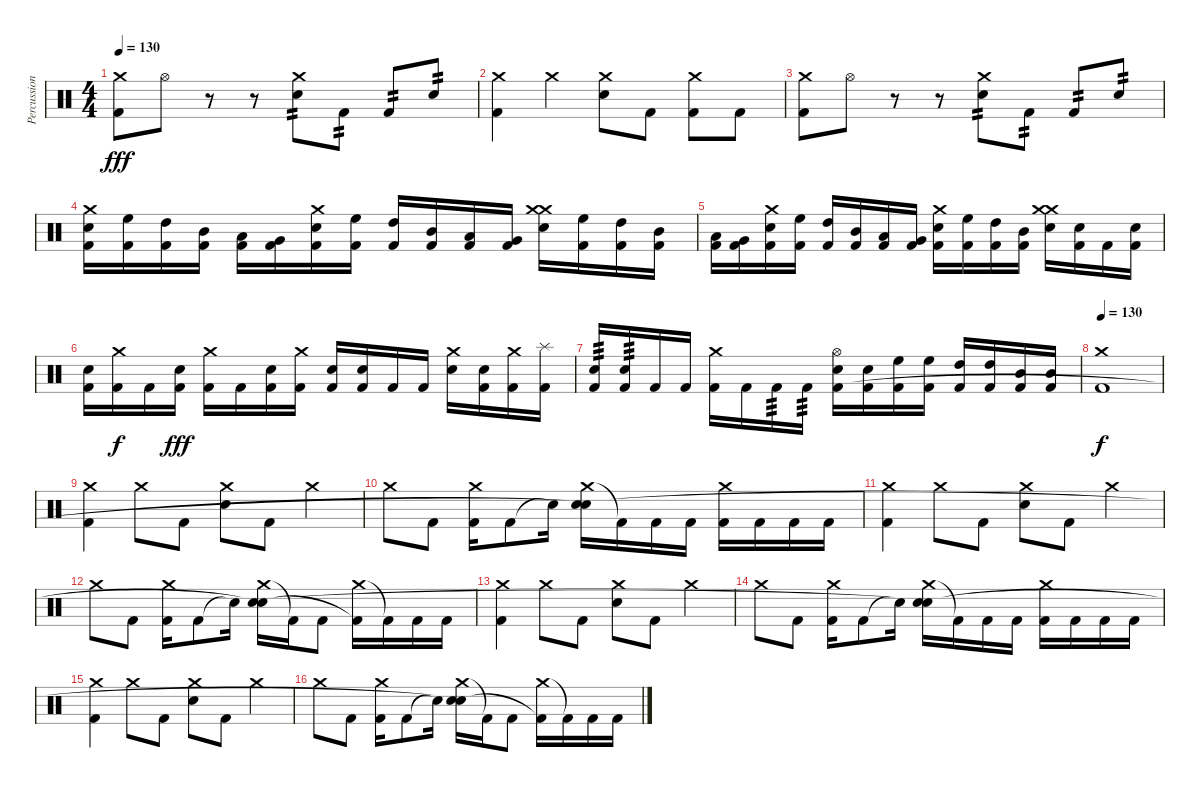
\track ("Percussion" "Percussion") {instrument percussion}
\staff {score}
\articulation defaults
\ts (4 4)
\tempo 130
\clef neutral
\ks c
("Crash medium (hit)" "Kick (hit) 2").8{dy fff} "Hi-Hat (open)".8 r.8 r.8 ("Crash medium (hit)" "Electric Snare (hit)").8{tp 2} "Kick (hit) 2".8{tp 2} "Kick (hit) 2".8{tp 2} "Electric Snare (hit)".8{tp 2} |
("Crash medium (hit)" "Kick (hit) 2").4 "Crash medium (hit)".4 ("Crash medium (hit)" "Electric Snare (hit)").8 "Kick (hit) 2".8 ("Crash medium (hit)" "Kick (hit) 2").8 "Kick (hit) 2".8 |
("Crash medium (hit)" "Kick (hit) 2").8 "Hi-Hat (open)".8 r.8 r.8 ("Crash medium (hit)" "Electric Snare (hit)").8{tp 2} "Kick (hit) 2".8{tp 2} "Kick (hit) 2".8{tp 2} "Electric Snare (hit)".8{tp 2} |
("Crash medium (hit)" "Electric Snare (hit)" "Kick (hit) 2").16 ("High Floor Tom (hit)" "Kick (hit) 2").16 ("High Tom (hit)" "Kick (hit) 2").16 ("Mid Tom (hit)" "Kick (hit) 2").16 ("Low Tom (hit)" "Kick (hit) 2").16 ("Very Low Tom (hit)" "Kick (hit) 2").16 ("Crash medium (hit)" "Electric Snare (hit)" "Kick (hit) 2").16 ("High Floor Tom (hit)" "Kick (hit) 2").16 ("High Tom (hit)" "Kick (hit) 2").16 ("Mid Tom (hit)" "Kick (hit) 2").16 ("Low Tom (hit)" "Kick (hit) 2").16 ("Very Low Tom (hit)" "Kick (hit) 2").16 ("Crash medium (hit)" "Electric Snare (hit)" "Crash medium (hit)").16 ("High Floor Tom (hit)" "Kick (hit) 2").16 ("High Tom (hit)" "Kick (hit) 2").16 ("Mid Tom (hit)" "Kick (hit) 2").16 |
("Low Tom (hit)" "Kick (hit) 2").16 ("Very Low Tom (hit)" "Kick (hit) 2").16 ("Crash medium (hit)" "Electric Snare (hit)" "Kick (hit) 2").16 ("High Floor Tom (hit)" "Kick (hit) 2").16 ("High Tom (hit)" "Kick (hit) 2").16 ("Mid Tom (hit)" "Kick (hit) 2").16 ("Low Tom (hit)" "Kick (hit) 2").16 ("Very Low Tom (hit)" "Kick (hit) 2").16 ("Crash medium (hit)" "Electric Snare (hit)" "Kick (hit) 2").16 ("High Floor Tom (hit)" "Kick (hit) 2").16 ("High Tom (hit)" "Kick (hit) 2").16 ("Mid Tom (hit)" "Kick (hit) 2").16 ("Crash medium (hit)" "Electric Snare (hit)" "Crash medium (hit)").16 ("Electric Snare (hit)" "Kick (hit) 2").16 "Kick (hit) 2".16 ("Electric Snare (hit)" "Kick (hit) 2").16 |
("Electric Snare (hit)" "Kick (hit) 2").16 ("Crash medium (hit)" "Kick (hit) 2").16{dy f} "Kick (hit) 2".16 ("Electric Snare (hit)" "Kick (hit) 2").16{dy fff} ("Crash medium (hit)" "Kick (hit) 2").16 "Kick (hit) 2".16 ("Electric Snare (hit)" "Kick (hit) 2").16 ("Crash medium (hit)" "Kick (hit) 2").16 ("Electric Snare (hit)" "Kick (hit) 2").16 ("Electric Snare (hit)" "Kick (hit) 2").16 "Kick (hit) 2".16 "Kick (hit) 2".16 ("Electric Snare (hit)" "Crash medium (hit)").16 ("Electric Snare (hit)" "Kick (hit) 2").16 ("Crash medium (hit)" "Kick (hit) 2").16 ("Splash (hit)" "Kick (hit) 2").16 |
("Electric Snare (hit)" "Kick (hit) 2").16{tp 3} ("Electric Snare (hit)" "Kick (hit) 2").16{tp 3} "Kick (hit) 2".16 "Kick (hit) 2".16 ("Crash medium (hit)" "Kick (hit) 2").16 "Kick (hit) 2".16 "Kick (hit) 2".16{tp 3} "Kick (hit) 2".16{tp 3} ("Hi-Hat (open)" "Electric Snare (hit)" "Kick (hit) 2").16 ("Electric Snare (hit)" "Kick (hit) 2").16 ("High Floor Tom (hit)" "Kick (hit) 2").16 ("High Floor Tom (hit)" "Kick (hit) 2").16 ("High Tom (hit)" "Kick (hit) 2").16 ("High Tom (hit)" "Kick (hit) 2").16 ("Mid Tom (hit)" "Kick (hit) 2").16 ("Mid Tom (hit)" "Kick (hit) 2").16 |
\tempo 130
("Crash medium (hit)" "Kick (hit) 2").1{dy f} |
("Crash medium (hit)" "Kick (hit) 2").4 "Crash medium (hit)".8 "Kick (hit) 2".8 ("Crash medium (hit)" "Electric Snare (hit)").8 "Kick (hit) 2".8 "Crash medium (hit)".4 |
"Crash medium (hit)".8 "Kick (hit) 2".8 ("Crash medium (hit)" "Kick (hit) 2").16 "Kick (hit) 2".8 "Snare (hit)"{t}.16 ("Crash medium (hit)" "Electric Snare (hit)" "Snare (hit)"{t}).16 "Kick (hit) 2"{t}.16 "Kick (hit) 2".16 "Kick (hit) 2".16 ("Crash medium (hit)" "Kick (hit) 2").16 "Kick (hit) 2".16 "Kick (hit) 2".16 "Kick (hit) 2".16 |
("Crash medium (hit)" "Kick (hit) 2").4 "Crash medium (hit)".8 "Kick (hit) 2".8 ("Crash medium (hit)" "Electric Snare (hit)").8 "Kick (hit) 2".8 "Crash medium (hit)".4 |
"Crash medium (hit)".8 "Kick (hit) 2".8 ("Crash medium (hit)" "Kick (hit) 2").16 "Kick (hit) 2".8 "Snare (hit)"{t}.16 ("Crash medium (hit)" "Electric Snare (hit)" "Snare (hit)"{t}).16 "Kick (hit) 2"{t}.16 "Kick (hit) 2".8 ("Crash medium (hit)" "Kick (hit) 2"{t}).16 "Kick (hit) 2"{t}.16 "Kick (hit) 2".16 "Kick (hit) 2".16 |
("Crash medium (hit)" "Kick (hit) 2").4 "Crash medium (hit)".8 "Kick (hit) 2".8 ("Crash medium (hit)" "Electric Snare (hit)").8 "Kick (hit) 2".8 "Crash medium (hit)".4 |
"Crash medium (hit)".8 "Kick (hit) 2".8 ("Crash medium (hit)" "Kick (hit) 2").16 "Kick (hit) 2".8 "Snare (hit)"{t}.16 ("Crash medium (hit)" "Electric Snare (hit)" "Snare (hit)"{t}).16 "Kick (hit) 2"{t}.16 "Kick (hit) 2".16 "Kick (hit) 2".16 ("Crash medium (hit)" "Kick (hit) 2").16 "Kick (hit) 2".16 "Kick (hit) 2".16 "Kick (hit) 2".16 |
("Crash medium (hit)" "Kick (hit) 2").4 "Crash medium (hit)".8 "Kick (hit) 2".8 ("Crash medium (hit)" "Electric Snare (hit)").8 "Kick (hit) 2".8 "Crash medium (hit)".4 |
"Crash medium (hit)".8 "Kick (hit) 2".8 ("Crash medium (hit)" "Kick (hit) 2").16 "Kick (hit) 2".8 "Snare (hit)"{t}.16 ("Crash medium (hit)" "Electric Snare (hit)" "Snare (hit)"{t}).16 "Kick (hit) 2"{t}.16 "Kick (hit) 2".8 ("Crash medium (hit)" "Kick (hit) 2"{t}).16 "Kick (hit) 2"{t}.16 "Kick (hit) 2".16 "Kick (hit) 2".16
